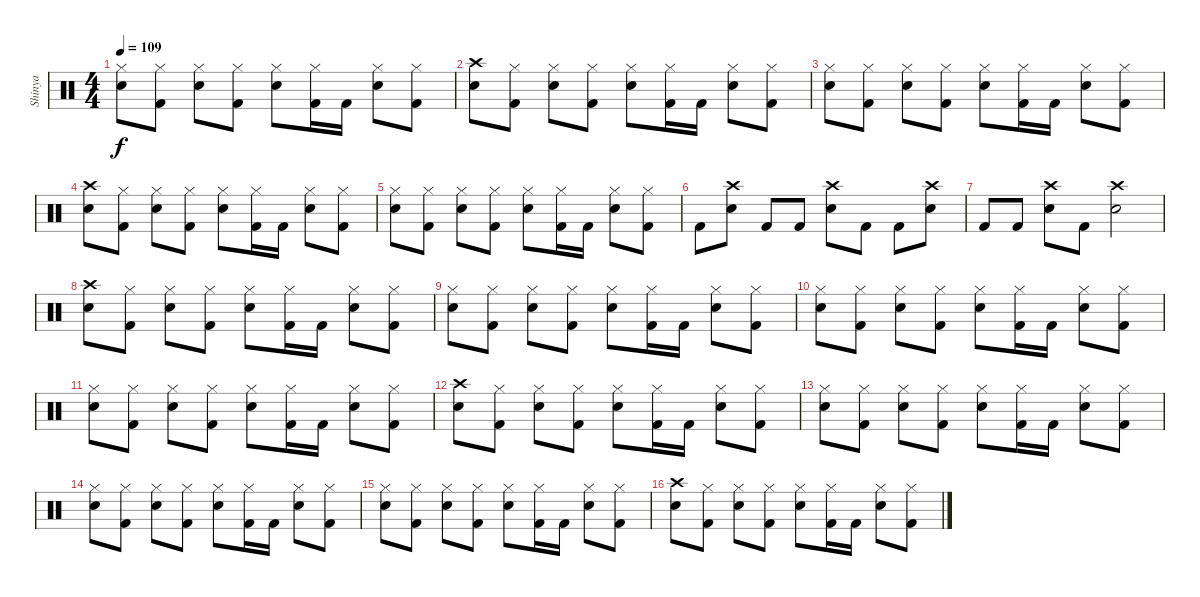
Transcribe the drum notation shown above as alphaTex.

\track ("Shinya" "Shinya") {instrument percussion}
\staff {score}
\articulation defaults
\ts (4 4)
\tempo 109
\clef neutral
\ks c
("Hi-Hat (closed)" "Snare (hit) 2").8{dy f} ("Hi-Hat (closed)" "Kick (hit) 2").8 ("Hi-Hat (closed)" "Snare (hit) 2").8 ("Hi-Hat (closed)" "Kick (hit) 2").8 ("Hi-Hat (closed)" "Snare (hit) 2").8 ("Hi-Hat (closed)" "Kick (hit) 2").16 "Kick (hit) 2".16 ("Hi-Hat (closed)" "Snare (hit) 2").8 ("Hi-Hat (closed)" "Kick (hit) 2").8 |
("Crash high (hit)" "Snare (hit) 2").8 ("Hi-Hat (closed)" "Kick (hit) 2").8 ("Hi-Hat (closed)" "Snare (hit) 2").8 ("Hi-Hat (closed)" "Kick (hit) 2").8 ("Hi-Hat (closed)" "Snare (hit) 2").8 ("Hi-Hat (closed)" "Kick (hit) 2").16 "Kick (hit) 2".16 ("Hi-Hat (closed)" "Snare (hit) 2").8 ("Hi-Hat (closed)" "Kick (hit) 2").8 |
("Hi-Hat (closed)" "Snare (hit) 2").8 ("Hi-Hat (closed)" "Kick (hit) 2").8 ("Hi-Hat (closed)" "Snare (hit) 2").8 ("Hi-Hat (closed)" "Kick (hit) 2").8 ("Hi-Hat (closed)" "Snare (hit) 2").8 ("Hi-Hat (closed)" "Kick (hit) 2").16 "Kick (hit) 2".16 ("Hi-Hat (closed)" "Snare (hit) 2").8 ("Hi-Hat (closed)" "Kick (hit) 2").8 |
("Crash high (hit)" "Snare (hit) 2").8 ("Hi-Hat (closed)" "Kick (hit) 2").8 ("Hi-Hat (closed)" "Snare (hit) 2").8 ("Hi-Hat (closed)" "Kick (hit) 2").8 ("Hi-Hat (closed)" "Snare (hit) 2").8 ("Hi-Hat (closed)" "Kick (hit) 2").16 "Kick (hit) 2".16 ("Hi-Hat (closed)" "Snare (hit) 2").8 ("Hi-Hat (closed)" "Kick (hit) 2").8 |
("Hi-Hat (closed)" "Snare (hit) 2").8 ("Hi-Hat (closed)" "Kick (hit) 2").8 ("Hi-Hat (closed)" "Snare (hit) 2").8 ("Hi-Hat (closed)" "Kick (hit) 2").8 ("Hi-Hat (closed)" "Snare (hit) 2").8 ("Hi-Hat (closed)" "Kick (hit) 2").16 "Kick (hit) 2".16 ("Hi-Hat (closed)" "Snare (hit) 2").8 ("Hi-Hat (closed)" "Kick (hit) 2").8 |
"Kick (hit) 2".8 ("Crash high (hit)" "Snare (hit) 2").8 "Kick (hit) 2".8 "Kick (hit) 2".8 ("Crash high (hit)" "Snare (hit) 2").8 "Kick (hit) 2".8 "Kick (hit) 2".8 ("Crash high (hit)" "Snare (hit) 2").8 |
"Kick (hit) 2".8 "Kick (hit) 2".8 ("Crash high (hit)" "Snare (hit) 2").8 "Kick (hit) 2".8 ("Crash high (hit)" "Snare (hit) 2").2 |
("Crash high (hit)" "Snare (hit) 2").8 ("Hi-Hat (closed)" "Kick (hit) 2").8 ("Hi-Hat (closed)" "Snare (hit) 2").8 ("Hi-Hat (closed)" "Kick (hit) 2").8 ("Hi-Hat (closed)" "Snare (hit) 2").8 ("Hi-Hat (closed)" "Kick (hit) 2").16 "Kick (hit) 2".16 ("Hi-Hat (closed)" "Snare (hit) 2").8 ("Hi-Hat (closed)" "Kick (hit) 2").8 |
("Hi-Hat (closed)" "Snare (hit) 2").8 ("Hi-Hat (closed)" "Kick (hit) 2").8 ("Hi-Hat (closed)" "Snare (hit) 2").8 ("Hi-Hat (closed)" "Kick (hit) 2").8 ("Hi-Hat (closed)" "Snare (hit) 2").8 ("Hi-Hat (closed)" "Kick (hit) 2").16 "Kick (hit) 2".16 ("Hi-Hat (closed)" "Snare (hit) 2").8 ("Hi-Hat (closed)" "Kick (hit) 2").8 |
("Hi-Hat (closed)" "Snare (hit) 2").8 ("Hi-Hat (closed)" "Kick (hit) 2").8 ("Hi-Hat (closed)" "Snare (hit) 2").8 ("Hi-Hat (closed)" "Kick (hit) 2").8 ("Hi-Hat (closed)" "Snare (hit) 2").8 ("Hi-Hat (closed)" "Kick (hit) 2").16 "Kick (hit) 2".16 ("Hi-Hat (closed)" "Snare (hit) 2").8 ("Hi-Hat (closed)" "Kick (hit) 2").8 |
("Hi-Hat (closed)" "Snare (hit) 2").8 ("Hi-Hat (closed)" "Kick (hit) 2").8 ("Hi-Hat (closed)" "Snare (hit) 2").8 ("Hi-Hat (closed)" "Kick (hit) 2").8 ("Hi-Hat (closed)" "Snare (hit) 2").8 ("Hi-Hat (closed)" "Kick (hit) 2").16 "Kick (hit) 2".16 ("Hi-Hat (closed)" "Snare (hit) 2").8 ("Hi-Hat (closed)" "Kick (hit) 2").8 |
("Crash high (hit)" "Snare (hit) 2").8 ("Hi-Hat (closed)" "Kick (hit) 2").8 ("Hi-Hat (closed)" "Snare (hit) 2").8 ("Hi-Hat (closed)" "Kick (hit) 2").8 ("Hi-Hat (closed)" "Snare (hit) 2").8 ("Hi-Hat (closed)" "Kick (hit) 2").16 "Kick (hit) 2".16 ("Hi-Hat (closed)" "Snare (hit) 2").8 ("Hi-Hat (closed)" "Kick (hit) 2").8 |
("Hi-Hat (closed)" "Snare (hit) 2").8 ("Hi-Hat (closed)" "Kick (hit) 2").8 ("Hi-Hat (closed)" "Snare (hit) 2").8 ("Hi-Hat (closed)" "Kick (hit) 2").8 ("Hi-Hat (closed)" "Snare (hit) 2").8 ("Hi-Hat (closed)" "Kick (hit) 2").16 "Kick (hit) 2".16 ("Hi-Hat (closed)" "Snare (hit) 2").8 ("Hi-Hat (closed)" "Kick (hit) 2").8 |
("Hi-Hat (closed)" "Snare (hit) 2").8 ("Hi-Hat (closed)" "Kick (hit) 2").8 ("Hi-Hat (closed)" "Snare (hit) 2").8 ("Hi-Hat (closed)" "Kick (hit) 2").8 ("Hi-Hat (closed)" "Snare (hit) 2").8 ("Hi-Hat (closed)" "Kick (hit) 2").16 "Kick (hit) 2".16 ("Hi-Hat (closed)" "Snare (hit) 2").8 ("Hi-Hat (closed)" "Kick (hit) 2").8 |
("Hi-Hat (closed)" "Snare (hit) 2").8 ("Hi-Hat (closed)" "Kick (hit) 2").8 ("Hi-Hat (closed)" "Snare (hit) 2").8 ("Hi-Hat (closed)" "Kick (hit) 2").8 ("Hi-Hat (closed)" "Snare (hit) 2").8 ("Hi-Hat (closed)" "Kick (hit) 2").16 "Kick (hit) 2".16 ("Hi-Hat (closed)" "Snare (hit) 2").8 ("Hi-Hat (closed)" "Kick (hit) 2").8 |
("Crash high (hit)" "Snare (hit) 2").8 ("Hi-Hat (closed)" "Kick (hit) 2").8 ("Hi-Hat (closed)" "Snare (hit) 2").8 ("Hi-Hat (closed)" "Kick (hit) 2").8 ("Hi-Hat (closed)" "Snare (hit) 2").8 ("Hi-Hat (closed)" "Kick (hit) 2").16 "Kick (hit) 2".16 ("Hi-Hat (closed)" "Snare (hit) 2").8 ("Hi-Hat (closed)" "Kick (hit) 2").8
